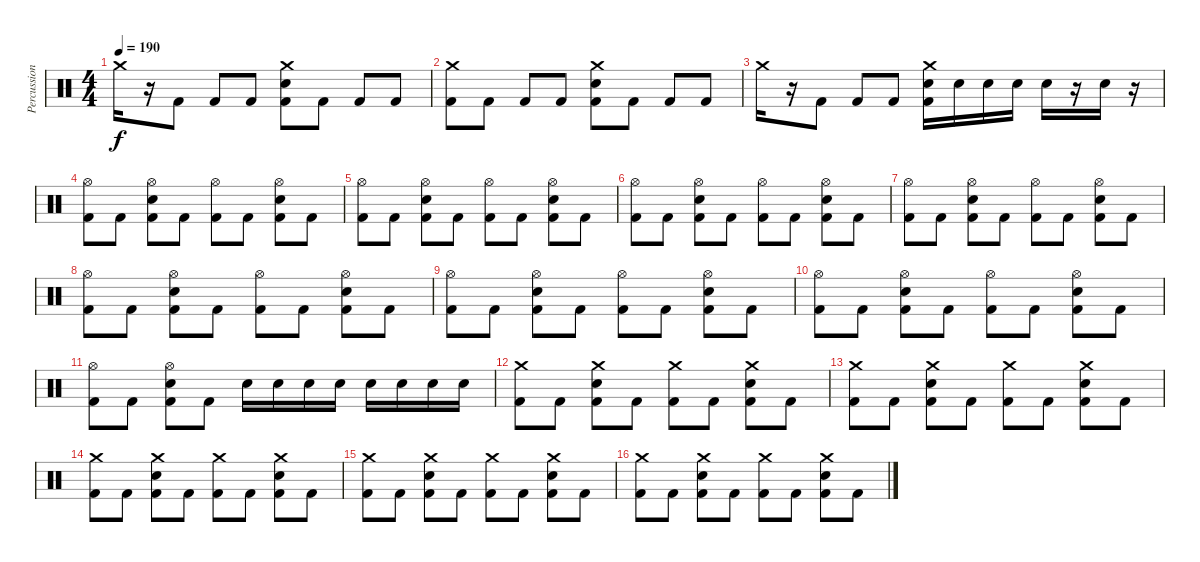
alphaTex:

\track ("Percussion" "Percussion") {instrument percussion}
\staff {score}
\articulation defaults
\ts (4 4)
\tempo 190
\clef neutral
\ks c "Crash medium (hit)".16{dy f}
r.16 "Kick (hit) 2".8 "Kick (hit) 2".8 "Kick (hit) 2".8 ("Crash medium (hit)" "Snare (hit) 2" "Kick (hit) 2").8 "Kick (hit) 2".8 "Kick (hit) 2".8 "Kick (hit) 2".8 |
("Crash medium (hit)" "Kick (hit) 2").8 "Kick (hit) 2".8 "Kick (hit) 2".8 "Kick (hit) 2".8 ("Crash medium (hit)" "Snare (hit) 2" "Kick (hit) 2").8 "Kick (hit) 2".8 "Kick (hit) 2".8 "Kick (hit) 2".8 |
"Crash medium (hit)".16 r.16 "Kick (hit) 2".8 "Kick (hit) 2".8 "Kick (hit) 2".8 ("Crash medium (hit)" "Snare (hit) 2" "Kick (hit) 2").16 "Snare (hit) 2".16 "Snare (hit) 2".16 "Snare (hit) 2".16 "Snare (hit) 2".16 r.16 "Snare (hit) 2".16 r.16 |
("Hi-Hat (open)" "Kick (hit) 2").8 "Kick (hit) 2".8 ("Hi-Hat (open)" "Snare (hit) 2" "Kick (hit) 2").8 "Kick (hit) 2".8 ("Hi-Hat (open)" "Kick (hit) 2").8 "Kick (hit) 2".8 ("Hi-Hat (open)" "Snare (hit) 2" "Kick (hit) 2").8 "Kick (hit) 2".8 |
("Hi-Hat (open)" "Kick (hit) 2").8 "Kick (hit) 2".8 ("Hi-Hat (open)" "Snare (hit) 2" "Kick (hit) 2").8 "Kick (hit) 2".8 ("Hi-Hat (open)" "Kick (hit) 2").8 "Kick (hit) 2".8 ("Hi-Hat (open)" "Snare (hit) 2" "Kick (hit) 2").8 "Kick (hit) 2".8 |
("Hi-Hat (open)" "Kick (hit) 2").8 "Kick (hit) 2".8 ("Hi-Hat (open)" "Snare (hit) 2" "Kick (hit) 2").8 "Kick (hit) 2".8 ("Hi-Hat (open)" "Kick (hit) 2").8 "Kick (hit) 2".8 ("Hi-Hat (open)" "Snare (hit) 2" "Kick (hit) 2").8 "Kick (hit) 2".8 |
("Hi-Hat (open)" "Kick (hit) 2").8 "Kick (hit) 2".8 ("Hi-Hat (open)" "Snare (hit) 2" "Kick (hit) 2").8 "Kick (hit) 2".8 ("Hi-Hat (open)" "Kick (hit) 2").8 "Kick (hit) 2".8 ("Hi-Hat (open)" "Snare (hit) 2" "Kick (hit) 2").8 "Kick (hit) 2".8 |
("Hi-Hat (open)" "Kick (hit) 2").8 "Kick (hit) 2".8 ("Hi-Hat (open)" "Snare (hit) 2" "Kick (hit) 2").8 "Kick (hit) 2".8 ("Hi-Hat (open)" "Kick (hit) 2").8 "Kick (hit) 2".8 ("Hi-Hat (open)" "Snare (hit) 2" "Kick (hit) 2").8 "Kick (hit) 2".8 |
("Hi-Hat (open)" "Kick (hit) 2").8 "Kick (hit) 2".8 ("Hi-Hat (open)" "Snare (hit) 2" "Kick (hit) 2").8 "Kick (hit) 2".8 ("Hi-Hat (open)" "Kick (hit) 2").8 "Kick (hit) 2".8 ("Hi-Hat (open)" "Snare (hit) 2" "Kick (hit) 2").8 "Kick (hit) 2".8 |
("Hi-Hat (open)" "Kick (hit) 2").8 "Kick (hit) 2".8 ("Hi-Hat (open)" "Snare (hit) 2" "Kick (hit) 2").8 "Kick (hit) 2".8 ("Hi-Hat (open)" "Kick (hit) 2").8 "Kick (hit) 2".8 ("Hi-Hat (open)" "Snare (hit) 2" "Kick (hit) 2").8 "Kick (hit) 2".8 |
("Hi-Hat (open)" "Kick (hit) 2").8 "Kick (hit) 2".8 ("Hi-Hat (open)" "Snare (hit) 2" "Kick (hit) 2").8 "Kick (hit) 2".8 "Snare (hit) 2".16 "Snare (hit) 2".16 "Snare (hit) 2".16 "Snare (hit) 2".16 "Snare (hit) 2".16 "Snare (hit) 2".16 "Snare (hit) 2".16 "Snare (hit) 2".16 |
("Crash medium (hit)" "Kick (hit) 2").8 "Kick (hit) 2".8 ("Crash medium (hit)" "Snare (hit) 2" "Kick (hit) 2").8 "Kick (hit) 2".8 ("Crash medium (hit)" "Kick (hit) 2").8 "Kick (hit) 2".8 ("Crash medium (hit)" "Snare (hit) 2" "Kick (hit) 2").8 "Kick (hit) 2".8 |
("Crash medium (hit)" "Kick (hit) 2").8 "Kick (hit) 2".8 ("Crash medium (hit)" "Snare (hit) 2" "Kick (hit) 2").8 "Kick (hit) 2".8 ("Crash medium (hit)" "Kick (hit) 2").8 "Kick (hit) 2".8 ("Crash medium (hit)" "Snare (hit) 2" "Kick (hit) 2").8 "Kick (hit) 2".8 |
("Crash medium (hit)" "Kick (hit) 2").8 "Kick (hit) 2".8 ("Crash medium (hit)" "Snare (hit) 2" "Kick (hit) 2").8 "Kick (hit) 2".8 ("Crash medium (hit)" "Kick (hit) 2").8 "Kick (hit) 2".8 ("Crash medium (hit)" "Snare (hit) 2" "Kick (hit) 2").8 "Kick (hit) 2".8 |
("Crash medium (hit)" "Kick (hit) 2").8 "Kick (hit) 2".8 ("Crash medium (hit)" "Snare (hit) 2" "Kick (hit) 2").8 "Kick (hit) 2".8 ("Crash medium (hit)" "Kick (hit) 2").8 "Kick (hit) 2".8 ("Crash medium (hit)" "Snare (hit) 2" "Kick (hit) 2").8 "Kick (hit) 2".8 |
("Crash medium (hit)" "Kick (hit) 2").8 "Kick (hit) 2".8 ("Crash medium (hit)" "Snare (hit) 2" "Kick (hit) 2").8 "Kick (hit) 2".8 ("Crash medium (hit)" "Kick (hit) 2").8 "Kick (hit) 2".8 ("Crash medium (hit)" "Snare (hit) 2" "Kick (hit) 2").8 "Kick (hit) 2".8
